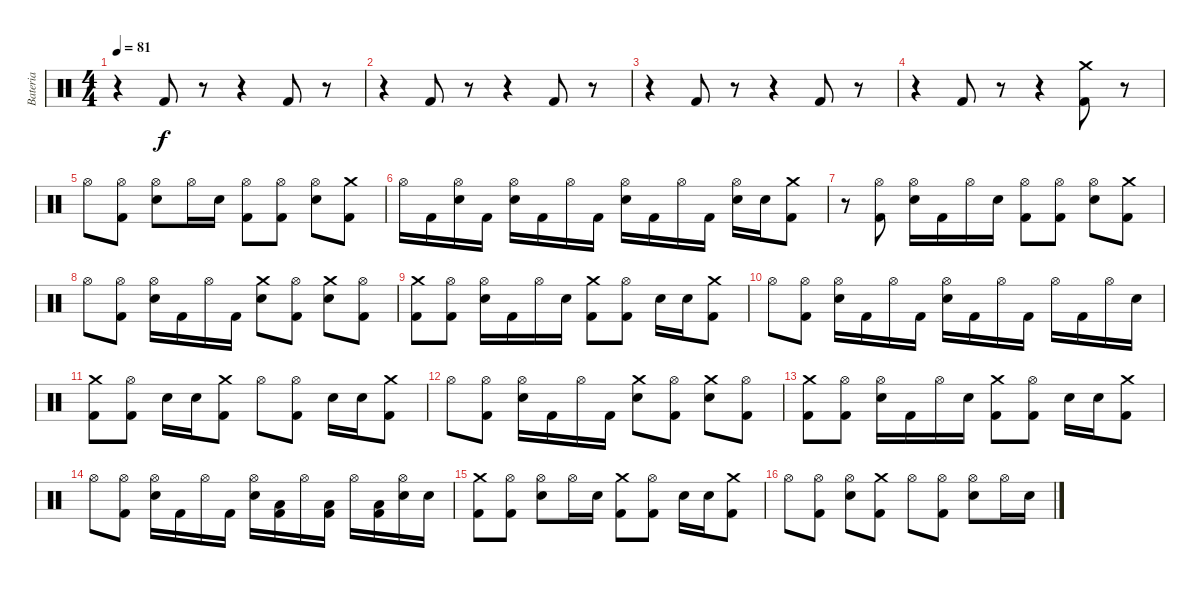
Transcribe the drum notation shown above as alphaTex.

\track ("Bateria" "Bateria") {instrument percussion}
\staff {score}
\articulation defaults
\ts (4 4)
\tempo 81
\clef neutral
\ks c
r.4{dy f} "Kick (hit) 2".8 r.8 r.4 "Kick (hit) 2".8 r.8 |
r.4 "Kick (hit) 2".8 r.8 r.4 "Kick (hit) 2".8 r.8 |
r.4 "Kick (hit) 2".8 r.8 r.4 "Kick (hit) 2".8 r.8 |
r.4 "Kick (hit) 2".8 r.8 r.4 ("Crash medium (hit)" "Kick (hit) 2").8 r.8 |
"Hi-Hat (open)".8 ("Hi-Hat (open)" "Kick (hit) 2").8 ("Hi-Hat (open)" "Electric Snare (hit)").8 "Hi-Hat (open)".16 "Electric Snare (hit)".16 ("Hi-Hat (open)" "Kick (hit) 2").8 ("Hi-Hat (open)" "Kick (hit) 2").8 ("Hi-Hat (open)" "Electric Snare (hit)").8 ("Crash medium (hit)" "Kick (hit) 2").8 |
"Hi-Hat (open)".16 "Kick (hit) 2".16 ("Hi-Hat (open)" "Electric Snare (hit)").16 "Kick (hit) 2".16 ("Hi-Hat (open)" "Electric Snare (hit)").16 "Kick (hit) 2".16 "Hi-Hat (open)".16 "Kick (hit) 2".16 ("Hi-Hat (open)" "Electric Snare (hit)").16 "Kick (hit) 2".16 "Hi-Hat (open)".16 "Kick (hit) 2".16 ("Hi-Hat (open)" "Electric Snare (hit)").16 "Electric Snare (hit)".16 ("Crash medium (hit)" "Kick (hit) 2").8 |
r.8 ("Hi-Hat (open)" "Kick (hit) 2").8 ("Hi-Hat (open)" "Electric Snare (hit)").16 "Kick (hit) 2".16 "Hi-Hat (open)".16 "Electric Snare (hit)".16 ("Hi-Hat (open)" "Kick (hit) 2").8 ("Hi-Hat (open)" "Kick (hit) 2").8 ("Hi-Hat (open)" "Electric Snare (hit)").8 ("Crash medium (hit)" "Kick (hit) 2").8 |
"Hi-Hat (open)".8 ("Hi-Hat (open)" "Kick (hit) 2").8 ("Hi-Hat (open)" "Electric Snare (hit)").16 "Kick (hit) 2".16 "Hi-Hat (open)".16 "Kick (hit) 2".16 ("Crash medium (hit)" "Electric Snare (hit)").8 ("Hi-Hat (open)" "Kick (hit) 2").8 ("Crash medium (hit)" "Electric Snare (hit)").8 ("Hi-Hat (open)" "Kick (hit) 2").8 |
("Crash medium (hit)" "Kick (hit) 2").8 ("Hi-Hat (open)" "Kick (hit) 2").8 ("Hi-Hat (open)" "Electric Snare (hit)").16 "Kick (hit) 2".16 "Hi-Hat (open)".16 "Electric Snare (hit)".16 ("Crash medium (hit)" "Kick (hit) 2").8 ("Hi-Hat (open)" "Kick (hit) 2").8 "Electric Snare (hit)".16 "Electric Snare (hit)".16 ("Crash medium (hit)" "Kick (hit) 2").8 |
"Hi-Hat (open)".8 ("Hi-Hat (open)" "Kick (hit) 2").8 ("Hi-Hat (open)" "Electric Snare (hit)").16 "Kick (hit) 2".16 "Hi-Hat (open)".16 "Kick (hit) 2".16 ("Hi-Hat (open)" "Electric Snare (hit)").16 "Kick (hit) 2".16 "Hi-Hat (open)".16 "Kick (hit) 2".16 "Hi-Hat (open)".16 "Kick (hit) 2".16 "Hi-Hat (open)".16 "Electric Snare (hit)".16 |
("Crash medium (hit)" "Kick (hit) 2").8 ("Hi-Hat (open)" "Kick (hit) 2").8 "Electric Snare (hit)".16 "Electric Snare (hit)".16 ("Crash medium (hit)" "Kick (hit) 2").8 "Hi-Hat (open)".8 ("Hi-Hat (open)" "Kick (hit) 2").8 "Electric Snare (hit)".16 "Electric Snare (hit)".16 ("Crash medium (hit)" "Kick (hit) 2").8 |
"Hi-Hat (open)".8 ("Hi-Hat (open)" "Kick (hit) 2").8 ("Hi-Hat (open)" "Electric Snare (hit)").16 "Kick (hit) 2".16 "Hi-Hat (open)".16 "Kick (hit) 2".16 ("Crash medium (hit)" "Electric Snare (hit)").8 ("Hi-Hat (open)" "Kick (hit) 2").8 ("Crash medium (hit)" "Electric Snare (hit)").8 ("Hi-Hat (open)" "Kick (hit) 2").8 |
("Crash medium (hit)" "Kick (hit) 2").8 ("Hi-Hat (open)" "Kick (hit) 2").8 ("Hi-Hat (open)" "Electric Snare (hit)").16 "Kick (hit) 2".16 "Hi-Hat (open)".16 "Electric Snare (hit)".16 ("Crash medium (hit)" "Kick (hit) 2").8 ("Hi-Hat (open)" "Kick (hit) 2").8 "Electric Snare (hit)".16 "Electric Snare (hit)".16 ("Crash medium (hit)" "Kick (hit) 2").8 |
"Hi-Hat (open)".8 ("Hi-Hat (open)" "Kick (hit) 2").8 ("Hi-Hat (open)" "Electric Snare (hit)").16 "Kick (hit) 2".16 "Hi-Hat (open)".16 "Kick (hit) 2".16 ("Hi-Hat (open)" "Electric Snare (hit)").16 ("Low Tom (hit)" "Kick (hit) 2").16 "Hi-Hat (open)".16 ("Low Tom (hit)" "Kick (hit) 2").16 "Hi-Hat (open)".16 ("Low Tom (hit)" "Kick (hit) 2").16 ("Hi-Hat (open)" "Electric Snare (hit)").16 "Electric Snare (hit)".16 |
("Crash medium (hit)" "Kick (hit) 2").8 ("Hi-Hat (open)" "Kick (hit) 2").8 ("Hi-Hat (open)" "Electric Snare (hit)").8 "Hi-Hat (open)".16 "Electric Snare (hit)".16 ("Crash medium (hit)" "Kick (hit) 2").8 ("Hi-Hat (open)" "Kick (hit) 2").8 "Electric Snare (hit)".16 "Electric Snare (hit)".16 ("Crash medium (hit)" "Kick (hit) 2").8 |
"Hi-Hat (open)".8 ("Hi-Hat (open)" "Kick (hit) 2").8 ("Hi-Hat (open)" "Electric Snare (hit)").8 ("Crash medium (hit)" "Kick (hit) 2").8 "Hi-Hat (open)".8 ("Hi-Hat (open)" "Kick (hit) 2").8 ("Hi-Hat (open)" "Electric Snare (hit)").8 "Hi-Hat (open)".16 "Electric Snare (hit)".16
